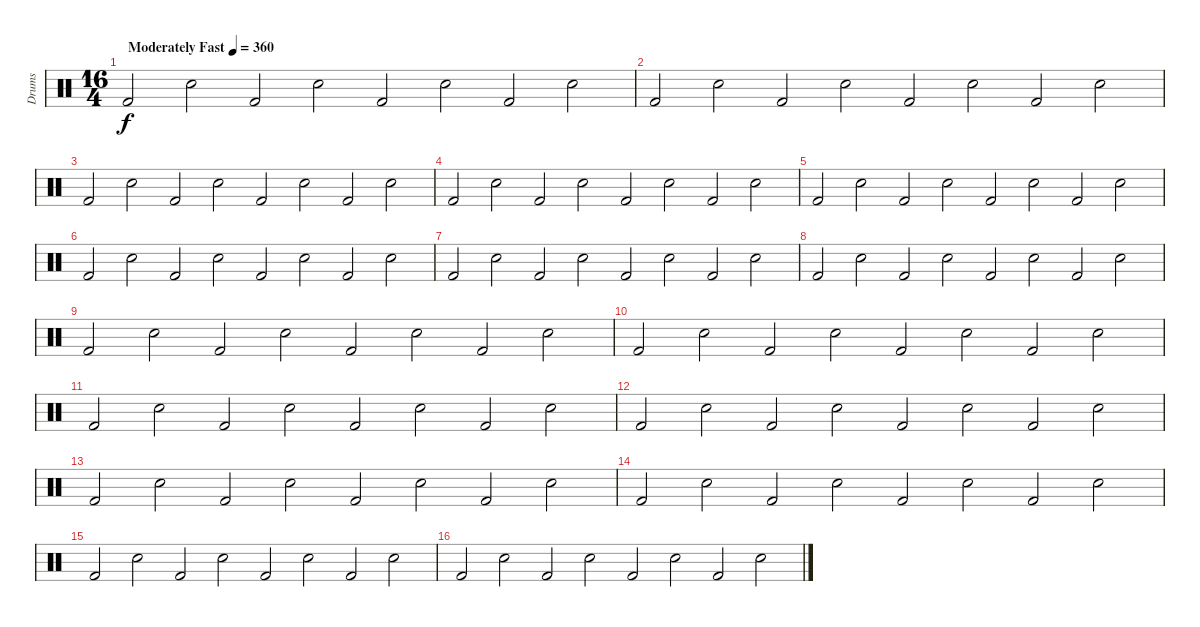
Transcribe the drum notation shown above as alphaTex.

\track ("Drums" "Drums") {instrument percussion}
\staff {score}
\articulation defaults
\ts (16 4)
\tempo (360 "Moderately Fast")
\clef neutral
\ks c "Kick (hit) 2".2{dy f} "Snare (hit) 2".2 "Kick (hit) 2".2 "Snare (hit) 2".2 "Kick (hit) 2".2 "Snare (hit) 2".2 "Kick (hit) 2".2 "Snare (hit) 2".2
|
"Kick (hit) 2".2 "Snare (hit) 2".2 "Kick (hit) 2".2 "Snare (hit) 2".2 "Kick (hit) 2".2 "Snare (hit) 2".2 "Kick (hit) 2".2 "Snare (hit) 2".2 |
"Kick (hit) 2".2 "Snare (hit) 2".2 "Kick (hit) 2".2 "Snare (hit) 2".2 "Kick (hit) 2".2 "Snare (hit) 2".2 "Kick (hit) 2".2 "Snare (hit) 2".2 |
"Kick (hit) 2".2 "Snare (hit) 2".2 "Kick (hit) 2".2 "Snare (hit) 2".2 "Kick (hit) 2".2 "Snare (hit) 2".2 "Kick (hit) 2".2 "Snare (hit) 2".2 |
"Kick (hit) 2".2 "Snare (hit) 2".2 "Kick (hit) 2".2 "Snare (hit) 2".2 "Kick (hit) 2".2 "Snare (hit) 2".2 "Kick (hit) 2".2 "Snare (hit) 2".2 |
"Kick (hit) 2".2 "Snare (hit) 2".2 "Kick (hit) 2".2 "Snare (hit) 2".2 "Kick (hit) 2".2 "Snare (hit) 2".2 "Kick (hit) 2".2 "Snare (hit) 2".2 |
"Kick (hit) 2".2 "Snare (hit) 2".2 "Kick (hit) 2".2 "Snare (hit) 2".2 "Kick (hit) 2".2 "Snare (hit) 2".2 "Kick (hit) 2".2 "Snare (hit) 2".2 |
"Kick (hit) 2".2 "Snare (hit) 2".2 "Kick (hit) 2".2 "Snare (hit) 2".2 "Kick (hit) 2".2 "Snare (hit) 2".2 "Kick (hit) 2".2 "Snare (hit) 2".2 |
"Kick (hit) 2".2 "Snare (hit) 2".2 "Kick (hit) 2".2 "Snare (hit) 2".2 "Kick (hit) 2".2 "Snare (hit) 2".2 "Kick (hit) 2".2 "Snare (hit) 2".2 |
"Kick (hit) 2".2 "Snare (hit) 2".2 "Kick (hit) 2".2 "Snare (hit) 2".2 "Kick (hit) 2".2 "Snare (hit) 2".2 "Kick (hit) 2".2 "Snare (hit) 2".2 |
"Kick (hit) 2".2 "Snare (hit) 2".2 "Kick (hit) 2".2 "Snare (hit) 2".2 "Kick (hit) 2".2 "Snare (hit) 2".2 "Kick (hit) 2".2 "Snare (hit) 2".2 |
"Kick (hit) 2".2 "Snare (hit) 2".2 "Kick (hit) 2".2 "Snare (hit) 2".2 "Kick (hit) 2".2 "Snare (hit) 2".2 "Kick (hit) 2".2 "Snare (hit) 2".2 |
"Kick (hit) 2".2 "Snare (hit) 2".2 "Kick (hit) 2".2 "Snare (hit) 2".2 "Kick (hit) 2".2 "Snare (hit) 2".2 "Kick (hit) 2".2 "Snare (hit) 2".2 |
"Kick (hit) 2".2 "Snare (hit) 2".2 "Kick (hit) 2".2 "Snare (hit) 2".2 "Kick (hit) 2".2 "Snare (hit) 2".2 "Kick (hit) 2".2 "Snare (hit) 2".2 |
"Kick (hit) 2".2 "Snare (hit) 2".2 "Kick (hit) 2".2 "Snare (hit) 2".2 "Kick (hit) 2".2 "Snare (hit) 2".2 "Kick (hit) 2".2 "Snare (hit) 2".2 |
"Kick (hit) 2".2 "Snare (hit) 2".2 "Kick (hit) 2".2 "Snare (hit) 2".2 "Kick (hit) 2".2 "Snare (hit) 2".2 "Kick (hit) 2".2 "Snare (hit) 2".2
